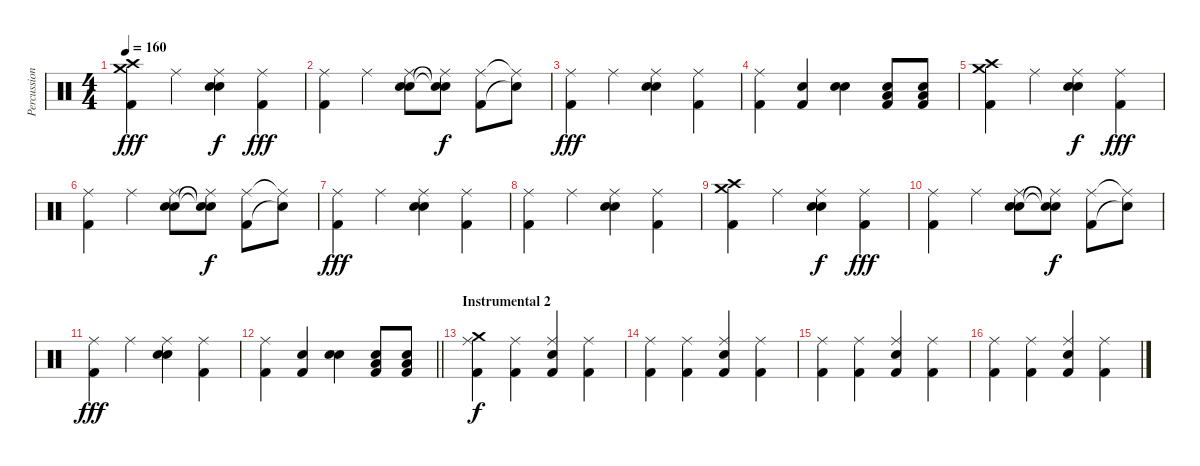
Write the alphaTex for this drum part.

\track ("Percussion" "Percussion") {instrument percussion}
\staff {score}
\articulation defaults
\ts (4 4)
\tempo 160
\clef neutral
\ks c
("Crash high (hit)" "Kick (hit) 2" "Crash medium (hit)").4{dy fff} "Ride (middle)".4 ("Ride (middle)" "Snare (hit) 2" "Electric Snare (hit)").4{dy f} ("Ride (middle)" "Kick (hit) 2").4{dy fff} |
("Kick (hit) 2" "Ride (middle)").4 "Ride (middle)".4 ("Snare (hit) 2" "Electric Snare (hit)" "Ride (middle)").8 ("Ride (middle)"{t} "Snare (hit)"{t} "Snare (hit)"{t}).8{dy f} ("Ride (middle)" "Kick (hit) 2").8 ("Ride (middle)"{t} "Snare (hit)"{t}).8 |
("Kick (hit) 2" "Ride (middle)").4{dy fff} "Ride (middle)".4 ("Snare (hit) 2" "Electric Snare (hit)" "Ride (middle)").4 ("Kick (hit) 2" "Ride (middle)").4 |
("Kick (hit) 2" "Ride (middle)").4 ("Kick (hit) 2" "Snare (hit) 2").4 ("Snare (hit) 2" "Snare (hit) 2").4 ("Kick (hit) 2" "Snare (hit) 2" "Low Floor Tom (hit)").8 ("Kick (hit) 2" "Snare (hit) 2" "Low Floor Tom (hit)").8 |
("Crash high (hit)" "Kick (hit) 2" "Crash medium (hit)").4 "Ride (middle)".4 ("Ride (middle)" "Snare (hit) 2" "Electric Snare (hit)").4{dy f} ("Ride (middle)" "Kick (hit) 2").4{dy fff} |
("Kick (hit) 2" "Ride (middle)").4 "Ride (middle)".4 ("Snare (hit) 2" "Electric Snare (hit)" "Ride (middle)").8 ("Ride (middle)"{t} "Snare (hit)"{t} "Snare (hit)"{t}).8{dy f} ("Ride (middle)" "Kick (hit) 2").8 ("Ride (middle)"{t} "Snare (hit)"{t}).8 |
("Kick (hit) 2" "Ride (middle)").4{dy fff} "Ride (middle)".4 ("Snare (hit) 2" "Electric Snare (hit)" "Ride (middle)").4 ("Kick (hit) 2" "Ride (middle)").4 |
("Kick (hit) 2" "Ride (middle)").4 "Ride (middle)".4 ("Snare (hit) 2" "Electric Snare (hit)" "Ride (middle)").4 ("Kick (hit) 2" "Ride (middle)").4 |
("Crash high (hit)" "Kick (hit) 2" "Crash medium (hit)").4 "Ride (middle)".4 ("Ride (middle)" "Snare (hit) 2" "Electric Snare (hit)").4{dy f} ("Ride (middle)" "Kick (hit) 2").4{dy fff} |
("Kick (hit) 2" "Ride (middle)").4 "Ride (middle)".4 ("Snare (hit) 2" "Electric Snare (hit)" "Ride (middle)").8 ("Ride (middle)"{t} "Snare (hit)"{t} "Snare (hit)"{t}).8{dy f} ("Ride (middle)" "Kick (hit) 2").8 ("Ride (middle)"{t} "Snare (hit)"{t}).8 |
("Kick (hit) 2" "Ride (middle)").4{dy fff} "Ride (middle)".4 ("Snare (hit) 2" "Electric Snare (hit)" "Ride (middle)").4 ("Kick (hit) 2" "Ride (middle)").4 |
\barLineRight lightlight
("Kick (hit) 2" "Ride (middle)").4 ("Kick (hit) 2" "Snare (hit) 2").4 ("Snare (hit) 2" "Snare (hit) 2").4 ("Kick (hit) 2" "Snare (hit) 2" "Low Floor Tom (hit)").8 ("Kick (hit) 2" "Snare (hit) 2" "Low Floor Tom (hit)").8 |
\section ("" "Instrumental 2")
("Ride (middle)" "Crash medium (hit)" "Kick (hit) 2").4{dy f} ("Ride (middle)" "Kick (hit) 2").4 ("Ride (middle)" "Snare (hit) 2" "Kick (hit) 2").4 ("Ride (middle)" "Kick (hit) 2").4 |
("Ride (middle)" "Kick (hit) 2").4 ("Ride (middle)" "Kick (hit) 2").4 ("Ride (middle)" "Snare (hit) 2" "Kick (hit) 2").4 ("Ride (middle)" "Kick (hit) 2").4 |
("Ride (middle)" "Kick (hit) 2").4 ("Ride (middle)" "Kick (hit) 2").4 ("Ride (middle)" "Snare (hit) 2" "Kick (hit) 2").4 ("Ride (middle)" "Kick (hit) 2").4 |
("Ride (middle)" "Kick (hit) 2").4 ("Ride (middle)" "Kick (hit) 2").4 ("Ride (middle)" "Snare (hit) 2" "Kick (hit) 2").4 ("Ride (middle)" "Kick (hit) 2").4
